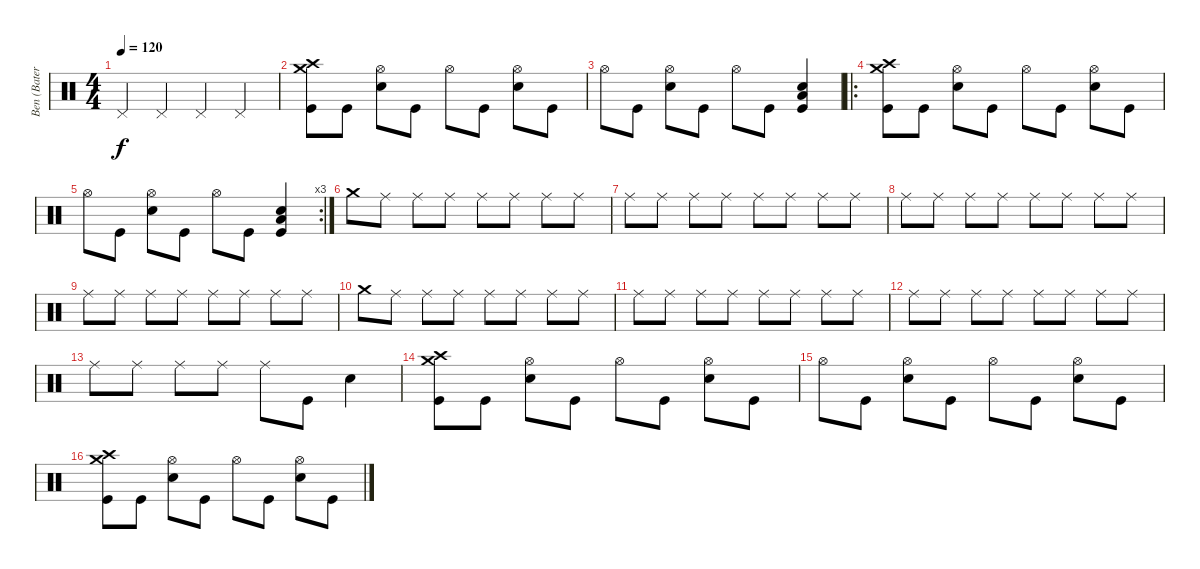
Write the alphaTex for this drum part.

\track ("Ben (Bateria)" "Ben (Bater") {instrument percussion}
\staff {score}
\articulation defaults
\ts (4 4)
\tempo 120
\clef neutral
\ks c "Pedal Hi-Hat (hit)".4{dy f} "Pedal Hi-Hat (hit)".4 "Pedal Hi-Hat (hit)".4 "Pedal Hi-Hat (hit)".4
|
("Kick (hit)" "Crash high (hit)" "Crash medium (hit)").8 "Kick (hit)".8 ("Snare (hit) 2" "Hi-Hat (open)").8 "Kick (hit)".8 "Hi-Hat (open)".8 "Kick (hit)".8 ("Snare (hit) 2" "Hi-Hat (open)").8 "Kick (hit)".8 |
"Hi-Hat (open)".8 "Kick (hit)".8 ("Snare (hit) 2" "Hi-Hat (open)").8 "Kick (hit)".8 "Hi-Hat (open)".8 "Kick (hit)".8 ("Kick (hit)" "Snare (hit) 2" "Low Floor Tom (hit)").4 |
\ro
("Kick (hit)" "Crash high (hit)" "Crash medium (hit)").8 "Kick (hit)".8 ("Snare (hit) 2" "Hi-Hat (open)").8 "Kick (hit)".8 "Hi-Hat (open)".8 "Kick (hit)".8 ("Snare (hit) 2" "Hi-Hat (open)").8 "Kick (hit)".8 |
\rc 3 "Hi-Hat (open)".8 "Kick (hit)".8
("Snare (hit) 2" "Hi-Hat (open)").8 "Kick (hit)".8 "Hi-Hat (open)".8 "Kick (hit)".8 ("Kick (hit)" "Snare (hit) 2" "Low Floor Tom (hit)").4 |
"Crash medium (hit)".8 "Ride (middle)".8 "Ride (middle)".8 "Ride (middle)".8 "Ride (middle)".8 "Ride (middle)".8 "Ride (middle)".8 "Ride (middle)".8 |
"Ride (middle)".8 "Ride (middle)".8 "Ride (middle)".8 "Ride (middle)".8 "Ride (middle)".8 "Ride (middle)".8 "Ride (middle)".8 "Ride (middle)".8 |
"Ride (middle)".8 "Ride (middle)".8 "Ride (middle)".8 "Ride (middle)".8 "Ride (middle)".8 "Ride (middle)".8 "Ride (middle)".8 "Ride (middle)".8 |
"Ride (middle)".8 "Ride (middle)".8 "Ride (middle)".8 "Ride (middle)".8 "Ride (middle)".8 "Ride (middle)".8 "Ride (middle)".8 "Ride (middle)".8 |
"Crash medium (hit)".8 "Ride (middle)".8 "Ride (middle)".8 "Ride (middle)".8 "Ride (middle)".8 "Ride (middle)".8 "Ride (middle)".8 "Ride (middle)".8 |
"Ride (middle)".8 "Ride (middle)".8 "Ride (middle)".8 "Ride (middle)".8 "Ride (middle)".8 "Ride (middle)".8 "Ride (middle)".8 "Ride (middle)".8 |
"Ride (middle)".8 "Ride (middle)".8 "Ride (middle)".8 "Ride (middle)".8 "Ride (middle)".8 "Ride (middle)".8 "Ride (middle)".8 "Ride (middle)".8 |
"Ride (middle)".8 "Ride (middle)".8 "Ride (middle)".8 "Ride (middle)".8 "Ride (middle)".8 "Kick (hit)".8 "Snare (hit) 2".4 |
("Kick (hit)" "Crash high (hit)" "Crash medium (hit)").8 "Kick (hit)".8 ("Snare (hit) 2" "Hi-Hat (open)").8 "Kick (hit)".8 "Hi-Hat (open)".8 "Kick (hit)".8 ("Snare (hit) 2" "Hi-Hat (open)").8 "Kick (hit)".8 |
"Hi-Hat (open)".8 "Kick (hit)".8 ("Snare (hit) 2" "Hi-Hat (open)").8 "Kick (hit)".8 "Hi-Hat (open)".8 "Kick (hit)".8 ("Snare (hit) 2" "Hi-Hat (open)").8 "Kick (hit)".8 |
("Kick (hit)" "Crash high (hit)" "Crash medium (hit)").8 "Kick (hit)".8 ("Snare (hit) 2" "Hi-Hat (open)").8 "Kick (hit)".8 "Hi-Hat (open)".8 "Kick (hit)".8 ("Snare (hit) 2" "Hi-Hat (open)").8 "Kick (hit)".8
